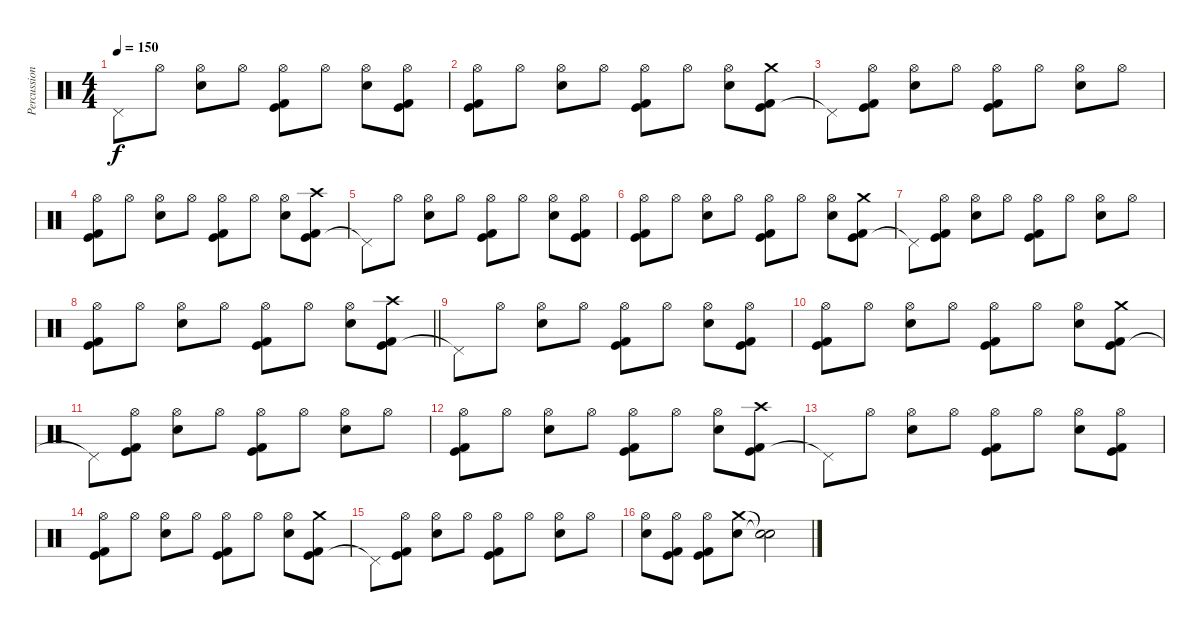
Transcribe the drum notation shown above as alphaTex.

\track ("Percussion" "Percussion") {instrument percussion}
\staff {score}
\articulation defaults
\ts (4 4)
\section ("" "")
\tempo 150
\clef neutral
\ks c "Pedal Hi-Hat (hit)"{t}.8{dy f} "Hi-Hat (open)".8
("Electric Snare (hit)" "Hi-Hat (open)").8 "Hi-Hat (open)".8 ("Kick (hit)" "Kick (hit) 2" "Hi-Hat (open)").8 "Hi-Hat (open)".8 ("Electric Snare (hit)" "Hi-Hat (open)").8 ("Kick (hit)" "Kick (hit) 2" "Hi-Hat (open)").8 |
("Kick (hit)" "Kick (hit) 2" "Hi-Hat (open)").8 "Hi-Hat (open)".8 ("Electric Snare (hit)" "Hi-Hat (open)").8 "Hi-Hat (open)".8 ("Kick (hit)" "Kick (hit) 2" "Hi-Hat (open)").8 "Hi-Hat (open)".8 ("Electric Snare (hit)" "Hi-Hat (open)").8 ("Kick (hit)" "Kick (hit) 2" "Crash medium (hit)").8 |
"Pedal Hi-Hat (hit)"{t}.8 ("Kick (hit)" "Kick (hit) 2" "Hi-Hat (open)").8 ("Electric Snare (hit)" "Hi-Hat (open)").8 "Hi-Hat (open)".8 ("Kick (hit)" "Kick (hit) 2" "Hi-Hat (open)").8 "Hi-Hat (open)".8 ("Electric Snare (hit)" "Hi-Hat (open)").8 "Hi-Hat (open)".8 |
("Kick (hit)" "Kick (hit) 2" "Hi-Hat (open)").8 "Hi-Hat (open)".8 ("Electric Snare (hit)" "Hi-Hat (open)").8 "Hi-Hat (open)".8 ("Kick (hit)" "Kick (hit) 2" "Hi-Hat (open)").8 "Hi-Hat (open)".8 ("Electric Snare (hit)" "Hi-Hat (open)").8 ("Kick (hit)" "Kick (hit) 2" "Crash high (hit)").8 |
"Pedal Hi-Hat (hit)"{t}.8 "Hi-Hat (open)".8 ("Electric Snare (hit)" "Hi-Hat (open)").8 "Hi-Hat (open)".8 ("Kick (hit)" "Kick (hit) 2" "Hi-Hat (open)").8 "Hi-Hat (open)".8 ("Electric Snare (hit)" "Hi-Hat (open)").8 ("Kick (hit)" "Kick (hit) 2" "Hi-Hat (open)").8 |
("Kick (hit)" "Kick (hit) 2" "Hi-Hat (open)").8 "Hi-Hat (open)".8 ("Electric Snare (hit)" "Hi-Hat (open)").8 "Hi-Hat (open)".8 ("Kick (hit)" "Kick (hit) 2" "Hi-Hat (open)").8 "Hi-Hat (open)".8 ("Electric Snare (hit)" "Hi-Hat (open)").8 ("Kick (hit)" "Kick (hit) 2" "Crash medium (hit)").8 |
"Pedal Hi-Hat (hit)"{t}.8 ("Kick (hit)" "Kick (hit) 2" "Hi-Hat (open)").8 ("Electric Snare (hit)" "Hi-Hat (open)").8 "Hi-Hat (open)".8 ("Kick (hit)" "Kick (hit) 2" "Hi-Hat (open)").8 "Hi-Hat (open)".8 ("Electric Snare (hit)" "Hi-Hat (open)").8 "Hi-Hat (open)".8 |
\barLineRight lightlight
("Kick (hit)" "Kick (hit) 2" "Hi-Hat (open)").8 "Hi-Hat (open)".8 ("Electric Snare (hit)" "Hi-Hat (open)").8 "Hi-Hat (open)".8 ("Kick (hit)" "Kick (hit) 2" "Hi-Hat (open)").8 "Hi-Hat (open)".8 ("Electric Snare (hit)" "Hi-Hat (open)").8 ("Kick (hit)" "Kick (hit) 2" "Crash high (hit)").8 |
\section ("" "")
"Pedal Hi-Hat (hit)"{t}.8 "Hi-Hat (open)".8 ("Electric Snare (hit)" "Hi-Hat (open)").8 "Hi-Hat (open)".8 ("Kick (hit)" "Kick (hit) 2" "Hi-Hat (open)").8 "Hi-Hat (open)".8 ("Electric Snare (hit)" "Hi-Hat (open)").8 ("Kick (hit)" "Kick (hit) 2" "Hi-Hat (open)").8 |
("Kick (hit)" "Kick (hit) 2" "Hi-Hat (open)").8 "Hi-Hat (open)".8 ("Electric Snare (hit)" "Hi-Hat (open)").8 "Hi-Hat (open)".8 ("Kick (hit)" "Kick (hit) 2" "Hi-Hat (open)").8 "Hi-Hat (open)".8 ("Electric Snare (hit)" "Hi-Hat (open)").8 ("Kick (hit)" "Kick (hit) 2" "Crash medium (hit)").8 |
"Pedal Hi-Hat (hit)"{t}.8 ("Kick (hit)" "Kick (hit) 2" "Hi-Hat (open)").8 ("Electric Snare (hit)" "Hi-Hat (open)").8 "Hi-Hat (open)".8 ("Kick (hit)" "Kick (hit) 2" "Hi-Hat (open)").8 "Hi-Hat (open)".8 ("Electric Snare (hit)" "Hi-Hat (open)").8 "Hi-Hat (open)".8 |
("Kick (hit)" "Kick (hit) 2" "Hi-Hat (open)").8 "Hi-Hat (open)".8 ("Electric Snare (hit)" "Hi-Hat (open)").8 "Hi-Hat (open)".8 ("Kick (hit)" "Kick (hit) 2" "Hi-Hat (open)").8 "Hi-Hat (open)".8 ("Electric Snare (hit)" "Hi-Hat (open)").8 ("Kick (hit)" "Kick (hit) 2" "Crash high (hit)").8 |
"Pedal Hi-Hat (hit)"{t}.8 "Hi-Hat (open)".8 ("Electric Snare (hit)" "Hi-Hat (open)").8 "Hi-Hat (open)".8 ("Kick (hit)" "Kick (hit) 2" "Hi-Hat (open)").8 "Hi-Hat (open)".8 ("Electric Snare (hit)" "Hi-Hat (open)").8 ("Kick (hit)" "Kick (hit) 2" "Hi-Hat (open)").8 |
("Kick (hit)" "Kick (hit) 2" "Hi-Hat (open)").8 "Hi-Hat (open)".8 ("Electric Snare (hit)" "Hi-Hat (open)").8 "Hi-Hat (open)".8 ("Kick (hit)" "Kick (hit) 2" "Hi-Hat (open)").8 "Hi-Hat (open)".8 ("Electric Snare (hit)" "Hi-Hat (open)").8 ("Kick (hit)" "Kick (hit) 2" "Crash medium (hit)").8 |
"Pedal Hi-Hat (hit)"{t}.8 ("Kick (hit)" "Kick (hit) 2" "Hi-Hat (open)").8 ("Electric Snare (hit)" "Hi-Hat (open)").8 "Hi-Hat (open)".8 ("Kick (hit)" "Kick (hit) 2" "Hi-Hat (open)").8 "Hi-Hat (open)".8 ("Electric Snare (hit)" "Hi-Hat (open)").8 "Hi-Hat (open)".8 |
("Electric Snare (hit)" "Hi-Hat (open)").8 ("Kick (hit)" "Kick (hit) 2" "Hi-Hat (open)").8 ("Kick (hit)" "Kick (hit) 2" "Hi-Hat (open)").8 ("Electric Snare (hit)" "Crash medium (hit)").8 ("Snare (hit)"{t} "Snare (hit)"{t}).2
